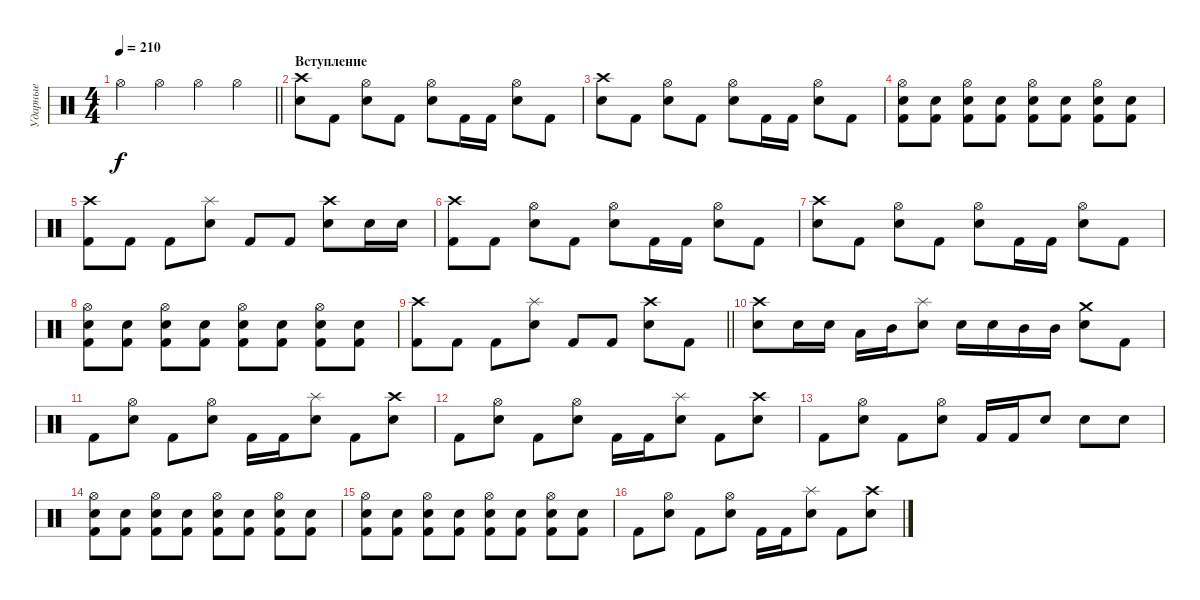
\track ("Ударные" "Ударные") {instrument percussion}
\staff {score}
\articulation defaults
\ts (4 4)
\tempo 210
\clef neutral
\barLineRight lightlight
\ks c "Hi-Hat (open)".4{dy f} "Hi-Hat (open)".4 "Hi-Hat (open)".4 "Hi-Hat (open)".4
|
\section ("" "Вступление")
("Crash high (hit)" "Electric Snare (hit)").8 "Kick (hit) 2".8 ("Hi-Hat (open)" "Electric Snare (hit)").8 "Kick (hit) 2".8 ("Electric Snare (hit)" "Hi-Hat (open)").8 "Kick (hit) 2".16 "Kick (hit) 2".16 ("Electric Snare (hit)" "Hi-Hat (open)").8 "Kick (hit) 2".8 |
("Crash high (hit)" "Electric Snare (hit)").8 "Kick (hit) 2".8 ("Hi-Hat (open)" "Electric Snare (hit)").8 "Kick (hit) 2".8 ("Electric Snare (hit)" "Hi-Hat (open)").8 "Kick (hit) 2".16 "Kick (hit) 2".16 ("Electric Snare (hit)" "Hi-Hat (open)").8 "Kick (hit) 2".8 |
("Hi-Hat (open)" "Kick (hit) 2" "Electric Snare (hit)").8 ("Kick (hit) 2" "Electric Snare (hit)").8 ("Hi-Hat (open)" "Kick (hit) 2" "Electric Snare (hit)").8 ("Kick (hit) 2" "Electric Snare (hit)").8 ("Hi-Hat (open)" "Kick (hit) 2" "Electric Snare (hit)").8 ("Kick (hit) 2" "Electric Snare (hit)").8 ("Hi-Hat (open)" "Kick (hit) 2" "Electric Snare (hit)").8 ("Kick (hit) 2" "Electric Snare (hit)").8 |
("Kick (hit) 2" "Crash high (hit)").8 "Kick (hit) 2".8 "Kick (hit) 2".8 ("Electric Snare (hit)" "Splash (hit)").8 "Kick (hit) 2".8 "Kick (hit) 2".8 ("Electric Snare (hit)" "Crash high (hit)").8 "Electric Snare (hit)".16 "Electric Snare (hit)".16 |
("Crash high (hit)" "Kick (hit) 2").8 "Kick (hit) 2".8 ("Hi-Hat (open)" "Electric Snare (hit)").8 "Kick (hit) 2".8 ("Electric Snare (hit)" "Hi-Hat (open)").8 "Kick (hit) 2".16 "Kick (hit) 2".16 ("Electric Snare (hit)" "Hi-Hat (open)").8 "Kick (hit) 2".8 |
("Crash high (hit)" "Electric Snare (hit)").8 "Kick (hit) 2".8 ("Hi-Hat (open)" "Electric Snare (hit)").8 "Kick (hit) 2".8 ("Electric Snare (hit)" "Hi-Hat (open)").8 "Kick (hit) 2".16 "Kick (hit) 2".16 ("Electric Snare (hit)" "Hi-Hat (open)").8 "Kick (hit) 2".8 |
("Hi-Hat (open)" "Kick (hit) 2" "Electric Snare (hit)").8 ("Kick (hit) 2" "Electric Snare (hit)").8 ("Hi-Hat (open)" "Kick (hit) 2" "Electric Snare (hit)").8 ("Kick (hit) 2" "Electric Snare (hit)").8 ("Hi-Hat (open)" "Kick (hit) 2" "Electric Snare (hit)").8 ("Kick (hit) 2" "Electric Snare (hit)").8 ("Hi-Hat (open)" "Kick (hit) 2" "Electric Snare (hit)").8 ("Kick (hit) 2" "Electric Snare (hit)").8 |
\barLineRight lightlight
("Kick (hit) 2" "Crash high (hit)").8 "Kick (hit) 2".8 "Kick (hit) 2".8 ("Electric Snare (hit)" "Splash (hit)").8 "Kick (hit) 2".8 "Kick (hit) 2".8 ("Electric Snare (hit)" "Crash high (hit)").8 "Kick (hit) 2".8 |
\section ("" "")
("Electric Snare (hit)" "Crash high (hit)").8 "Electric Snare (hit)".16 "Electric Snare (hit)".16 "Low Tom (hit)".16 "Mid Tom (hit)".16 ("Electric Snare (hit)" "Splash (hit)").8 "Electric Snare (hit)".16 "Electric Snare (hit)".16 "Mid Tom (hit)".16 "Mid Tom (hit)".16 ("Electric Snare (hit)" "Crash medium (hit)").8 "Kick (hit) 2".8 |
"Kick (hit) 2".8 ("Electric Snare (hit)" "Hi-Hat (open)").8 "Kick (hit) 2".8 ("Electric Snare (hit)" "Hi-Hat (open)").8 "Kick (hit) 2".16 "Kick (hit) 2".16 ("Electric Snare (hit)" "Splash (hit)").8 "Kick (hit) 2".8 ("Electric Snare (hit)" "Crash high (hit)").8 |
"Kick (hit) 2".8 ("Electric Snare (hit)" "Hi-Hat (open)").8 "Kick (hit) 2".8 ("Electric Snare (hit)" "Hi-Hat (open)").8 "Kick (hit) 2".16 "Kick (hit) 2".16 ("Electric Snare (hit)" "Splash (hit)").8 "Kick (hit) 2".8 ("Electric Snare (hit)" "Crash high (hit)").8 |
"Kick (hit) 2".8 ("Electric Snare (hit)" "Hi-Hat (open)").8 "Kick (hit) 2".8 ("Electric Snare (hit)" "Hi-Hat (open)").8 "Kick (hit) 2".16 "Kick (hit) 2".16 "Electric Snare (hit)".8 "Electric Snare (hit)".8 "Electric Snare (hit)".8 |
("Kick (hit) 2" "Electric Snare (hit)" "Hi-Hat (open)").8 ("Kick (hit) 2" "Electric Snare (hit)").8 ("Kick (hit) 2" "Electric Snare (hit)" "Hi-Hat (open)").8 ("Kick (hit) 2" "Electric Snare (hit)").8 ("Kick (hit) 2" "Electric Snare (hit)" "Hi-Hat (open)").8 ("Kick (hit) 2" "Electric Snare (hit)").8 ("Kick (hit) 2" "Electric Snare (hit)" "Hi-Hat (open)").8 ("Kick (hit) 2" "Electric Snare (hit)").8 |
("Kick (hit) 2" "Electric Snare (hit)" "Hi-Hat (open)").8 ("Kick (hit) 2" "Electric Snare (hit)").8 ("Kick (hit) 2" "Electric Snare (hit)" "Hi-Hat (open)").8 ("Kick (hit) 2" "Electric Snare (hit)").8 ("Kick (hit) 2" "Electric Snare (hit)" "Hi-Hat (open)").8 ("Kick (hit) 2" "Electric Snare (hit)").8 ("Kick (hit) 2" "Electric Snare (hit)" "Hi-Hat (open)").8 ("Kick (hit) 2" "Electric Snare (hit)").8 |
"Kick (hit) 2".8 ("Electric Snare (hit)" "Hi-Hat (open)").8 "Kick (hit) 2".8 ("Electric Snare (hit)" "Hi-Hat (open)").8 "Kick (hit) 2".16 "Kick (hit) 2".16 ("Electric Snare (hit)" "Splash (hit)").8 "Kick (hit) 2".8 ("Electric Snare (hit)" "Crash high (hit)").8
